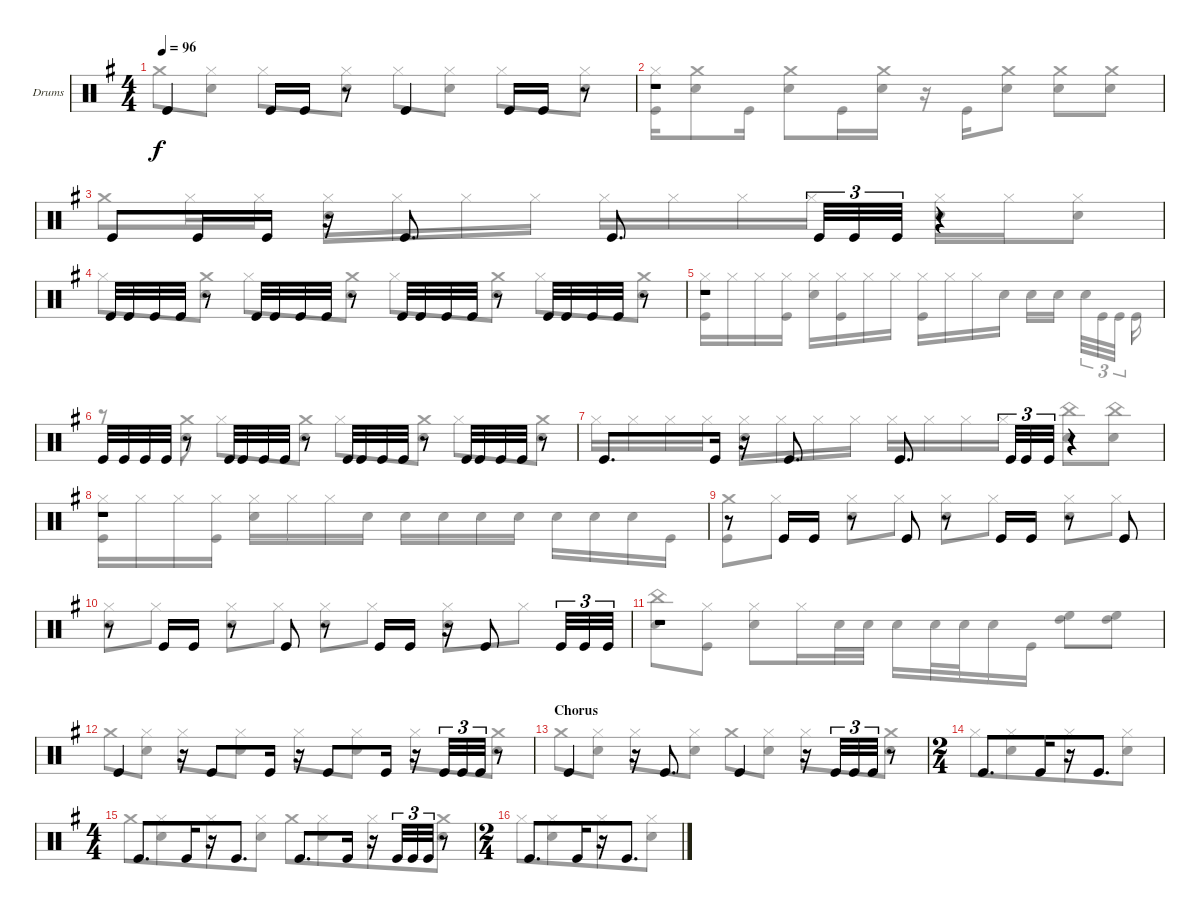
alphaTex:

\bracketExtendMode groupsimilarinstruments
\firstSystemTrackNameOrientation horizontal
\otherSystemsTrackNameOrientation horizontal
\track ("Drumkit" "Drums") {instrument percussion}
\staff {score}
\articulation defaults
\voice
\ts (4 4)
\tempo 96
\clef neutral
\scale
1.04288
\ks g "Kick (hit)".4{dy f} "Kick (hit)".16 "Kick (hit)".16
r.8 "Kick (hit)".4 "Kick (hit)".16 "Kick (hit)".16 r.8 |
\scale
0.957125 r.1 |
\scale
1.04288 "Kick (hit)".8 "Kick (hit)".16 "Kick (hit)".16 r.16 "Kick (hit)".8{d} "Kick (hit)".8{d} "Kick (hit)".32{tu (3 2)} "Kick (hit)".32{tu (3 2)} "Kick (hit)".32{tu (3 2)} r.4 |
\scale
0.957125 "Kick (hit)".32 "Kick (hit)".32 "Kick (hit)".32 "Kick (hit)".32 r.8 "Kick (hit)".32 "Kick (hit)".32 "Kick (hit)".32 "Kick (hit)".32 r.8 "Kick (hit)".32 "Kick (hit)".32 "Kick (hit)".32 "Kick (hit)".32 r.8 "Kick (hit)".32 "Kick (hit)".32 "Kick (hit)".32 "Kick (hit)".32 r.8 |
\scale
1.04288 r.1 |
\scale
0.957125 "Kick (hit)".32 "Kick (hit)".32 "Kick (hit)".32 "Kick (hit)".32 r.8 "Kick (hit)".32 "Kick (hit)".32 "Kick (hit)".32 "Kick (hit)".32 r.8 "Kick (hit)".32 "Kick (hit)".32 "Kick (hit)".32 "Kick (hit)".32 r.8 "Kick (hit)".32 "Kick (hit)".32 "Kick (hit)".32 "Kick (hit)".32 r.8 |
\scale
1.04288 "Kick (hit)".8{d} "Kick (hit)".16 r.16 "Kick (hit)".8{d} "Kick (hit)".8{d} "Kick (hit)".32{tu (3 2)} "Kick (hit)".32{tu (3 2)} "Kick (hit)".32{tu (3 2)} r.4 |
\scale
0.957125 r.1 |
\scale
1.04288 r.8 "Kick (hit)".16 "Kick (hit)".16 r.8 "Kick (hit)".8 r.8 "Kick (hit)".16 "Kick (hit)".16 r.8 "Kick (hit)".8 |
\scale
0.957125 r.8 "Kick (hit)".16 "Kick (hit)".16 r.8 "Kick (hit)".8 r.8 "Kick (hit)".16 "Kick (hit)".16 r.16 "Kick (hit)".8 "Kick (hit)".32{tu (3 2)} "Kick (hit)".32{tu (3 2)} "Kick (hit)".32{tu (3 2)} |
\scale
1.04288 r.1 |
\scale
0.957125 "Kick (hit)".4 r.16 "Kick (hit)".8 "Kick (hit)".16 r.16 "Kick (hit)".8 "Kick (hit)".16 r.16 "Kick (hit)".32{tu (3 2)} "Kick (hit)".32{tu (3 2)} "Kick (hit)".32{tu (3 2)} r.8 |
\section ("" "Chorus")
\scale
1.04288 "Kick (hit)".4 r.16 "Kick (hit)".8{d} "Kick (hit)".4 r.16 "Kick (hit)".32{tu (3 2)} "Kick (hit)".32{tu (3 2)} "Kick (hit)".32{tu (3 2)} r.8 |
\ts (2 4)
\beaming (8 4 4)
\scale
0.957125 "Kick (hit)".8{d} "Kick (hit)".16 r.16 "Kick (hit)".8{d} |
\ts (4 4)
\beaming (8 4 4)
\scale
1.07314 "Kick (hit)".8{d} "Kick (hit)".16 r.16 "Kick (hit)".8{d} "Kick (hit)".8{d} "Kick (hit)".16 r.16 "Kick (hit)".32{tu (3 2)} "Kick (hit)".32{tu (3 2)} "Kick (hit)".32{tu (3 2)} r.8 |
\ts (2 4)
\beaming (8 4 4)
\scale
0.92686 "Kick (hit)".8{d} "Kick (hit)".16 r.16 "Kick (hit)".8{d}
\voice
\clef neutral
\ottava regular
\simile none
\scale
1.04288
\ks g "Crash medium (hit)".8{dy f}
("Hi-Hat (closed)" "Snare (hit) 2").8 "Hi-Hat (closed)".8 ("Hi-Hat (closed)" "Snare (hit) 2").8 "Hi-Hat (closed)".8 ("Hi-Hat (closed)" "Snare (hit) 2").8 "Hi-Hat (closed)".8 ("Hi-Hat (closed)" "Snare (hit) 2").8 |
\scale
0.957125 ("Hi-Hat (closed)" "Kick (hit)").16 ("Crash medium (hit)" "Snare (hit) 2").8 "Kick (hit)".16 ("Crash medium (hit)" "Snare (hit) 2").8 "Kick (hit)".16 ("Crash medium (hit)" "Snare (hit) 2").16 r.16 "Kick (hit)".16 ("Crash medium (hit)" "Snare (hit) 2").8 ("Crash medium (hit)" "Snare (hit) 2").8 ("Crash medium (hit)" "Snare (hit) 2").8 |
\scale
1.04288 "Crash medium (hit)".8 "Hi-Hat (closed)".16 "Hi-Hat (closed)".16 ("Hi-Hat (closed)" "Snare (hit) 2").16 "Hi-Hat (closed)".16 "Hi-Hat (closed)".16 "Hi-Hat (closed)".16 "Hi-Hat (closed)".16 "Hi-Hat (closed)".16 "Hi-Hat (closed)".16 "Hi-Hat (closed)".16 ("Hi-Hat (closed)" "Snare (hit) 2").16 "Hi-Hat (closed)".16 ("Hi-Hat (closed)" "Snare (hit) 2").8 |
\scale
0.957125 "Hi-Hat (closed)".8 ("Crash medium (hit)" "Snare (hit) 2").8 "Hi-Hat (closed)".8 ("Crash medium (hit)" "Snare (hit) 2").8 "Hi-Hat (closed)".8 ("Crash medium (hit)" "Snare (hit) 2").8 "Hi-Hat (closed)".8 ("Crash medium (hit)" "Snare (hit) 2").8 |
\scale
1.04288 ("Hi-Hat (closed)" "Kick (hit)").16 "Hi-Hat (closed)".16 "Hi-Hat (closed)".16 ("Hi-Hat (closed)" "Kick (hit)").16 ("Hi-Hat (closed)" "Snare (hit) 2").16 ("Hi-Hat (closed)" "Kick (hit)").16 "Hi-Hat (closed)".16 "Hi-Hat (closed)".16 ("Hi-Hat (closed)" "Kick (hit)").16 "Hi-Hat (closed)".16 "Hi-Hat (closed)".16 "Snare (hit) 2".16 "Snare (hit) 2".16 "Snare (hit) 2".16 "Snare (hit) 2".32{tu (3 2)} "Kick (hit)".32{tu (3 2)} "Kick (hit)".32{tu (3 2)} "Kick (hit)".16 |
\scale
0.957125 r.8 ("Crash medium (hit)" "Snare (hit) 2").8 "Hi-Hat (closed)".8 ("Crash medium (hit)" "Snare (hit) 2").8 "Hi-Hat (closed)".8 ("Crash medium (hit)" "Snare (hit) 2").8 "Hi-Hat (closed)".8 ("Crash medium (hit)" "Snare (hit) 2").8 |
\scale
1.04288 "Hi-Hat (closed)".16 "Hi-Hat (closed)".16 "Hi-Hat (closed)".16 "Hi-Hat (closed)".16 ("Hi-Hat (closed)" "Snare (hit) 2").16 "Hi-Hat (closed)".16 "Hi-Hat (closed)".16 "Hi-Hat (closed)".16 "Hi-Hat (closed)".16 "Hi-Hat (closed)".16 "Hi-Hat (closed)".16 "Hi-Hat (closed)".16 ("China (hit)" "Snare (hit) 2").8 ("China (hit)" "Snare (hit) 2").8 |
\scale
0.957125 ("Hi-Hat (closed)" "Kick (hit)").16 "Hi-Hat (closed)".16 "Hi-Hat (closed)".16 ("Hi-Hat (closed)" "Kick (hit)").16 ("Hi-Hat (closed)" "Snare (hit) 2").16 "Hi-Hat (closed)".16 "Hi-Hat (closed)".16 "Snare (hit) 2".16 "Snare (hit) 2".16 "Snare (hit) 2".16 "Snare (hit) 2".16 "Snare (hit) 2".16 "Snare (hit) 2".16 "Snare (hit) 2".16 "Snare (hit) 2".16 "Kick (hit)".16 |
\scale
1.04288 ("Crash medium (hit)" "Kick (hit)").8 "Hi-Hat (closed)".8 ("Hi-Hat (closed)" "Snare (hit) 2").8 "Hi-Hat (closed)".8 ("Hi-Hat (closed)" "Snare (hit) 2").8 "Hi-Hat (closed)".8 ("Hi-Hat (closed)" "Snare (hit) 2").8 "Hi-Hat (closed)".8 |
\scale
0.957125 ("Hi-Hat (closed)" "Snare (hit) 2").8 "Hi-Hat (closed)".8 ("Hi-Hat (closed)" "Snare (hit) 2").8 "Hi-Hat (closed)".8 ("Hi-Hat (closed)" "Snare (hit) 2").8 "Hi-Hat (closed)".8 ("Hi-Hat (closed)" "Snare (hit) 2").8 "Hi-Hat (closed)".8 |
\scale
1.04288 ("China (hit)" "Snare (hit) 2").8 ("Hi-Hat (closed)" "Kick (hit)").8 ("Hi-Hat (closed)" "Snare (hit) 2").8 "Hi-Hat (closed)".16 "Snare (hit) 2".32 "Snare (hit) 2".32 "Snare (hit) 2".16 "Snare (hit) 2".32 "Snare (hit) 2".32 "Snare (hit) 2".16 "Kick (hit)".16 ("High Tom (hit)" "High Floor Tom (hit)").8 ("High Tom (hit)" "High Floor Tom (hit)").8 |
\scale
0.957125 "Crash medium (hit)".8 ("Hi-Hat (closed)" "Snare (hit) 2").8 "Hi-Hat (closed)".8 ("Hi-Hat (closed)" "Snare (hit) 2").8 "Hi-Hat (closed)".8 ("Hi-Hat (closed)" "Snare (hit) 2").8 "Hi-Hat (closed)".8 ("Crash medium (hit)" "Snare (hit) 2").8 |
\scale
1.04288 "Crash medium (hit)".8 ("Hi-Hat (closed)" "Snare (hit) 2").8 "Hi-Hat (closed)".8 ("Hi-Hat (closed)" "Snare (hit) 2").8 "Crash medium (hit)".8 ("Hi-Hat (closed)" "Snare (hit) 2").8 "Hi-Hat (closed)".8 ("Crash medium (hit)" "Snare (hit) 2").8 |
\scale
0.957125 "Hi-Hat (closed)".8 ("Hi-Hat (closed)" "Snare (hit) 2").8 "Hi-Hat (closed)".8 ("Hi-Hat (closed)" "Snare (hit) 2").8 |
\scale
1.07314 "Crash medium (hit)".8 ("Hi-Hat (closed)" "Snare (hit) 2").8 "Hi-Hat (closed)".8 ("Hi-Hat (closed)" "Snare (hit) 2").8 "Crash medium (hit)".8 ("Hi-Hat (closed)" "Snare (hit) 2").8 "Hi-Hat (closed)".8 ("Crash medium (hit)" "Snare (hit) 2").8 |
\scale
0.92686 "Hi-Hat (closed)".8 ("Hi-Hat (closed)" "Snare (hit) 2").8 "Hi-Hat (closed)".8 ("Hi-Hat (closed)" "Snare (hit) 2").8
